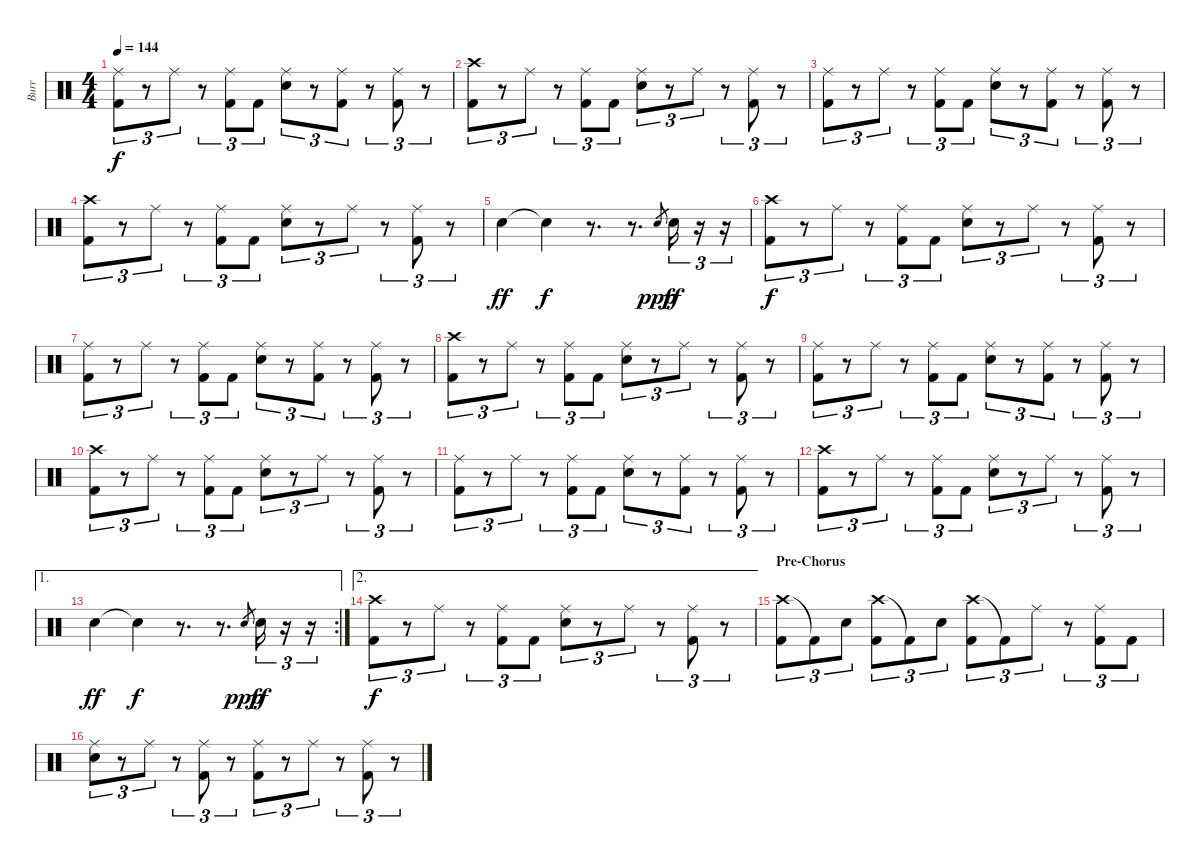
\track ("Burr" "Burr") {instrument percussion}
\staff {score}
\articulation defaults
\ts (4 4)
\tempo 144
\clef neutral
\ks c
("Ride (middle)" "Kick (hit) 2").8{tu (3 2) dy f} r.8{tu (3 2)} "Ride (middle)".8{tu (3 2)} r.8{tu (3 2)} ("Ride (middle)" "Kick (hit) 2").8{tu (3 2)} "Kick (hit) 2".8{tu (3 2)} ("Ride (middle)" "Snare (hit) 2").8{tu (3 2)} r.8{tu (3 2)} ("Ride (middle)" "Kick (hit) 2").8{tu (3 2)} r.8{tu (3 2)} ("Ride (middle)" "Kick (hit) 2").8{tu (3 2)} r.8{tu (3 2)} |
("Crash high (hit)" "Kick (hit) 2").8{tu (3 2)} r.8{tu (3 2)} "Ride (middle)".8{tu (3 2)} r.8{tu (3 2)} ("Ride (middle)" "Kick (hit) 2").8{tu (3 2)} "Kick (hit) 2".8{tu (3 2)} ("Ride (middle)" "Snare (hit) 2").8{tu (3 2)} r.8{tu (3 2)} "Ride (middle)".8{tu (3 2)} r.8{tu (3 2)} ("Ride (middle)" "Kick (hit) 2").8{tu (3 2)} r.8{tu (3 2)} |
("Ride (middle)" "Kick (hit) 2").8{tu (3 2)} r.8{tu (3 2)} "Ride (middle)".8{tu (3 2)} r.8{tu (3 2)} ("Ride (middle)" "Kick (hit) 2").8{tu (3 2)} "Kick (hit) 2".8{tu (3 2)} ("Ride (middle)" "Snare (hit) 2").8{tu (3 2)} r.8{tu (3 2)} ("Ride (middle)" "Kick (hit) 2").8{tu (3 2)} r.8{tu (3 2)} ("Ride (middle)" "Kick (hit) 2").8{tu (3 2)} r.8{tu (3 2)} |
("Crash high (hit)" "Kick (hit) 2").8{tu (3 2)} r.8{tu (3 2)} "Ride (middle)".8{tu (3 2)} r.8{tu (3 2)} ("Ride (middle)" "Kick (hit) 2").8{tu (3 2)} "Kick (hit) 2".8{tu (3 2)} ("Ride (middle)" "Snare (hit) 2").8{tu (3 2)} r.8{tu (3 2)} "Ride (middle)".8{tu (3 2)} r.8{tu (3 2)} ("Ride (middle)" "Kick (hit) 2").8{tu (3 2)} r.8{tu (3 2)} |
"Snare (hit) 2".4{dy ff} "Snare (hit)"{t}.4{dy f} r.8{d} r.8{d} "Snare (hit) 2".8{gr dy ppp} "Snare (hit) 2".16{tu (3 2) dy ff} r.16{tu (3 2)} r.16{tu (3 2)} |
("Crash high (hit)" "Kick (hit) 2").8{tu (3 2) dy f} r.8{tu (3 2)} "Ride (middle)".8{tu (3 2)} r.8{tu (3 2)} ("Ride (middle)" "Kick (hit) 2").8{tu (3 2)} "Kick (hit) 2".8{tu (3 2)} ("Ride (middle)" "Snare (hit) 2").8{tu (3 2)} r.8{tu (3 2)} "Ride (middle)".8{tu (3 2)} r.8{tu (3 2)} ("Ride (middle)" "Kick (hit) 2").8{tu (3 2)} r.8{tu (3 2)} |
("Ride (middle)" "Kick (hit) 2").8{tu (3 2)} r.8{tu (3 2)} "Ride (middle)".8{tu (3 2)} r.8{tu (3 2)} ("Ride (middle)" "Kick (hit) 2").8{tu (3 2)} "Kick (hit) 2".8{tu (3 2)} ("Ride (middle)" "Snare (hit) 2").8{tu (3 2)} r.8{tu (3 2)} ("Ride (middle)" "Kick (hit) 2").8{tu (3 2)} r.8{tu (3 2)} ("Ride (middle)" "Kick (hit) 2").8{tu (3 2)} r.8{tu (3 2)} |
("Crash high (hit)" "Kick (hit) 2").8{tu (3 2)} r.8{tu (3 2)} "Ride (middle)".8{tu (3 2)} r.8{tu (3 2)} ("Ride (middle)" "Kick (hit) 2").8{tu (3 2)} "Kick (hit) 2".8{tu (3 2)} ("Ride (middle)" "Snare (hit) 2").8{tu (3 2)} r.8{tu (3 2)} "Ride (middle)".8{tu (3 2)} r.8{tu (3 2)} ("Ride (middle)" "Kick (hit) 2").8{tu (3 2)} r.8{tu (3 2)} |
("Ride (middle)" "Kick (hit) 2").8{tu (3 2)} r.8{tu (3 2)} "Ride (middle)".8{tu (3 2)} r.8{tu (3 2)} ("Ride (middle)" "Kick (hit) 2").8{tu (3 2)} "Kick (hit) 2".8{tu (3 2)} ("Ride (middle)" "Snare (hit) 2").8{tu (3 2)} r.8{tu (3 2)} ("Ride (middle)" "Kick (hit) 2").8{tu (3 2)} r.8{tu (3 2)} ("Ride (middle)" "Kick (hit) 2").8{tu (3 2)} r.8{tu (3 2)} |
("Crash high (hit)" "Kick (hit) 2").8{tu (3 2)} r.8{tu (3 2)} "Ride (middle)".8{tu (3 2)} r.8{tu (3 2)} ("Ride (middle)" "Kick (hit) 2").8{tu (3 2)} "Kick (hit) 2".8{tu (3 2)} ("Ride (middle)" "Snare (hit) 2").8{tu (3 2)} r.8{tu (3 2)} "Ride (middle)".8{tu (3 2)} r.8{tu (3 2)} ("Ride (middle)" "Kick (hit) 2").8{tu (3 2)} r.8{tu (3 2)} |
("Ride (middle)" "Kick (hit) 2").8{tu (3 2)} r.8{tu (3 2)} "Ride (middle)".8{tu (3 2)} r.8{tu (3 2)} ("Ride (middle)" "Kick (hit) 2").8{tu (3 2)} "Kick (hit) 2".8{tu (3 2)} ("Ride (middle)" "Snare (hit) 2").8{tu (3 2)} r.8{tu (3 2)} ("Ride (middle)" "Kick (hit) 2").8{tu (3 2)} r.8{tu (3 2)} ("Ride (middle)" "Kick (hit) 2").8{tu (3 2)} r.8{tu (3 2)} |
("Crash high (hit)" "Kick (hit) 2").8{tu (3 2)} r.8{tu (3 2)} "Ride (middle)".8{tu (3 2)} r.8{tu (3 2)} ("Ride (middle)" "Kick (hit) 2").8{tu (3 2)} "Kick (hit) 2".8{tu (3 2)} ("Ride (middle)" "Snare (hit) 2").8{tu (3 2)} r.8{tu (3 2)} "Ride (middle)".8{tu (3 2)} r.8{tu (3 2)} ("Ride (middle)" "Kick (hit) 2").8{tu (3 2)} r.8{tu (3 2)} |
\ae 1
\rc 2 "Snare (hit) 2".4{dy ff} "Snare (hit)"{t}.4{dy f}
r.8{d} r.8{d} "Snare (hit) 2".8{gr dy ppp} "Snare (hit) 2".16{tu (3 2) dy ff} r.16{tu (3 2)} r.16{tu (3 2)} |
\ae 2
("Crash high (hit)" "Kick (hit) 2").8{tu (3 2) dy f} r.8{tu (3 2)} "Ride (middle)".8{tu (3 2)} r.8{tu (3 2)} ("Ride (middle)" "Kick (hit) 2").8{tu (3 2)} "Kick (hit) 2".8{tu (3 2)} ("Ride (middle)" "Snare (hit) 2").8{tu (3 2)} r.8{tu (3 2)} "Ride (middle)".8{tu (3 2)} r.8{tu (3 2)} ("Ride (middle)" "Kick (hit) 2").8{tu (3 2)} r.8{tu (3 2)} |
\section ("" "Pre-Chorus")
("Crash high (hit)" "Kick (hit) 2").8{tu (3 2)} "Kick (hit) 2"{t}.8{tu (3 2)} "Snare (hit) 2".8{tu (3 2)} ("Crash high (hit)" "Kick (hit) 2").8{tu (3 2)} "Kick (hit) 2"{t}.8{tu (3 2)} "Snare (hit) 2".8{tu (3 2)} ("Crash high (hit)" "Kick (hit) 2").8{tu (3 2)} "Kick (hit) 2"{t}.8{tu (3 2)} "Ride (middle)".8{tu (3 2)} r.8{tu (3 2)} ("Ride (middle)" "Kick (hit) 2").8{tu (3 2)} "Kick (hit) 2".8{tu (3 2)} |
("Ride (middle)" "Snare (hit) 2").8{tu (3 2)} r.8{tu (3 2)} "Ride (middle)".8{tu (3 2)} r.8{tu (3 2)} ("Ride (middle)" "Kick (hit) 2").8{tu (3 2)} r.8{tu (3 2)} ("Ride (middle)" "Kick (hit) 2").8{tu (3 2)} r.8{tu (3 2)} "Ride (middle)".8{tu (3 2)} r.8{tu (3 2)} ("Ride (middle)" "Kick (hit) 2").8{tu (3 2)} r.8{tu (3 2)}
